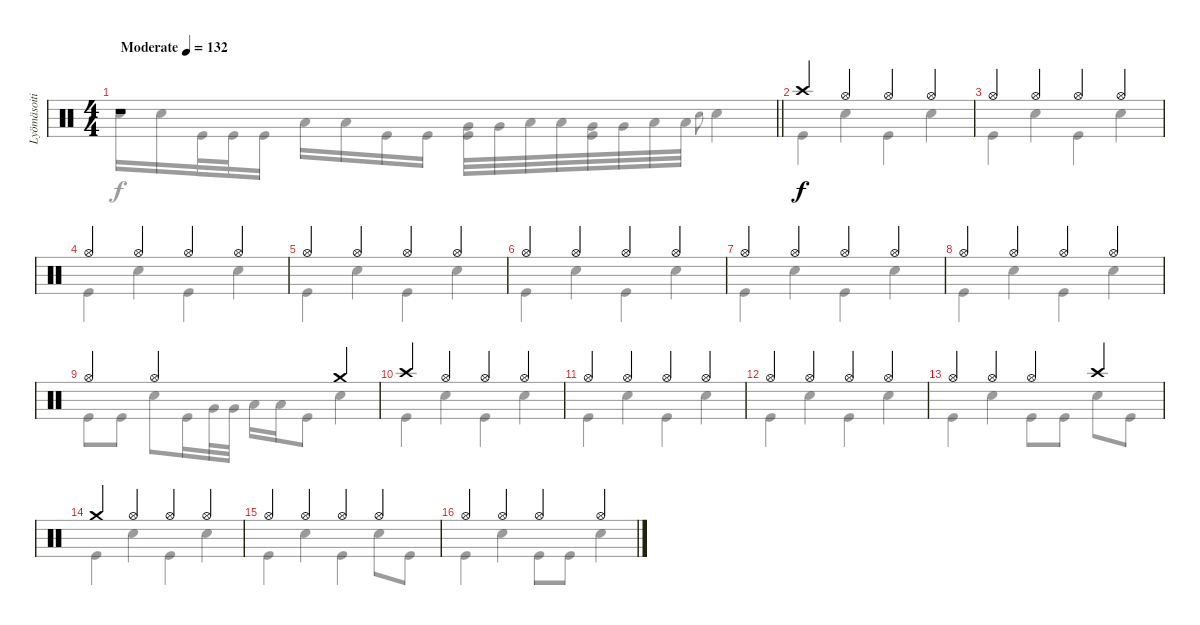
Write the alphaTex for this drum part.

\track ("Lyömäsoitin" "Lyömäsoiti") {instrument percussion}
\staff {score}
\articulation defaults
\voice
\ts (4 4)
\section ("" "")
\tempo (132 "Moderate")
\clef neutral
\barLineRight lightlight
\ks c
r.1{dy f} |
\section ("" "")
"Crash high (hit)".4 "Hi-Hat (open)".4 "Hi-Hat (open)".4 "Hi-Hat (open)".4 |
"Hi-Hat (open)".4 "Hi-Hat (open)".4 "Hi-Hat (open)".4 "Hi-Hat (open)".4 |
"Hi-Hat (open)".4 "Hi-Hat (open)".4 "Hi-Hat (open)".4 "Hi-Hat (open)".4 |
"Hi-Hat (open)".4 "Hi-Hat (open)".4 "Hi-Hat (open)".4 "Hi-Hat (open)".4 |
"Hi-Hat (open)".4 "Hi-Hat (open)".4 "Hi-Hat (open)".4 "Hi-Hat (open)".4 |
"Hi-Hat (open)".4 "Hi-Hat (open)".4 "Hi-Hat (open)".4 "Hi-Hat (open)".4 |
"Hi-Hat (open)".4 "Hi-Hat (open)".4 "Hi-Hat (open)".4 "Hi-Hat (open)".4 |
"Hi-Hat (open)".4 "Hi-Hat (open)".2 "Crash medium (hit)".4 |
"Crash high (hit)".4 "Hi-Hat (open)".4 "Hi-Hat (open)".4 "Hi-Hat (open)".4 |
"Hi-Hat (open)".4 "Hi-Hat (open)".4 "Hi-Hat (open)".4 "Hi-Hat (open)".4 |
"Hi-Hat (open)".4 "Hi-Hat (open)".4 "Hi-Hat (open)".4 "Hi-Hat (open)".4 |
"Hi-Hat (open)".4 "Hi-Hat (open)".4 "Hi-Hat (open)".4 "Crash high (hit)".4 |
"Crash medium (hit)".4 "Hi-Hat (open)".4 "Hi-Hat (open)".4 "Hi-Hat (open)".4 |
"Hi-Hat (open)".4 "Hi-Hat (open)".4 "Hi-Hat (open)".4 "Hi-Hat (open)".4 |
"Hi-Hat (open)".4 "Hi-Hat (open)".4 "Hi-Hat (open)".4 "Hi-Hat (open)".4
\voice
\clef neutral
\ottava regular
\simile none
\barLineRight lightlight
\ks c "Electric Snare (hit)".16{dy f} "Electric Snare (hit)".16 "Kick (hit)".32 "Kick (hit)".32 "Kick (hit)".16 "Low Tom (hit)".16 "Low Tom (hit)".16 "Kick (hit)".16 "Kick (hit)".16
("Very Low Tom (hit)" "Kick (hit)").32 "Very Low Tom (hit)".32 "Low Floor Tom (hit)".32 "Low Floor Tom (hit)".32 ("Very Low Tom (hit)" "Kick (hit)").32 "Very Low Tom (hit)".32 "Low Floor Tom (hit)".32 "Low Floor Tom (hit)".32 "Electric Snare (hit)"{h}.8{gr onbeat} "Electric Snare (hit)".4 |
"Kick (hit)".4 "Electric Snare (hit)".4 "Kick (hit)".4 "Electric Snare (hit)".4 |
"Kick (hit)".4 "Electric Snare (hit)".4 "Kick (hit)".4 "Electric Snare (hit)".4 |
"Kick (hit)".4 "Electric Snare (hit)".4 "Kick (hit)".4 "Electric Snare (hit)".4 |
"Kick (hit)".4 "Electric Snare (hit)".4 "Kick (hit)".4 "Electric Snare (hit)".4 |
"Kick (hit)".4 "Electric Snare (hit)".4 "Kick (hit)".4 "Electric Snare (hit)".4 |
"Kick (hit)".4 "Electric Snare (hit)".4 "Kick (hit)".4 "Electric Snare (hit)".4 |
"Kick (hit)".4 "Electric Snare (hit)".4 "Kick (hit)".4 "Electric Snare (hit)".4 |
"Kick (hit)".8 "Kick (hit)".8 "Electric Snare (hit)".8 "Kick (hit)".16 "Very Low Tom (hit)".32 "Very Low Tom (hit)".32 "Low Floor Tom (hit)".16 "Low Floor Tom (hit)".16 "Kick (hit)".8 "Electric Snare (hit)".4 |
"Kick (hit)".4 "Electric Snare (hit)".4 "Kick (hit)".4 "Electric Snare (hit)".4 |
"Kick (hit)".4 "Electric Snare (hit)".4 "Kick (hit)".4 "Electric Snare (hit)".4 |
"Kick (hit)".4 "Electric Snare (hit)".4 "Kick (hit)".4 "Electric Snare (hit)".4 |
"Kick (hit)".4 "Electric Snare (hit)".4 "Kick (hit)".8 "Kick (hit)".8 "Electric Snare (hit)".8 "Kick (hit)".8 |
"Kick (hit)".4 "Electric Snare (hit)".4 "Kick (hit)".4 "Electric Snare (hit)".4 |
"Kick (hit)".4 "Electric Snare (hit)".4 "Kick (hit)".4 "Electric Snare (hit)".8 "Kick (hit)".8 |
"Kick (hit)".4 "Electric Snare (hit)".4 "Kick (hit)".8 "Kick (hit)".8 "Electric Snare (hit)".4
